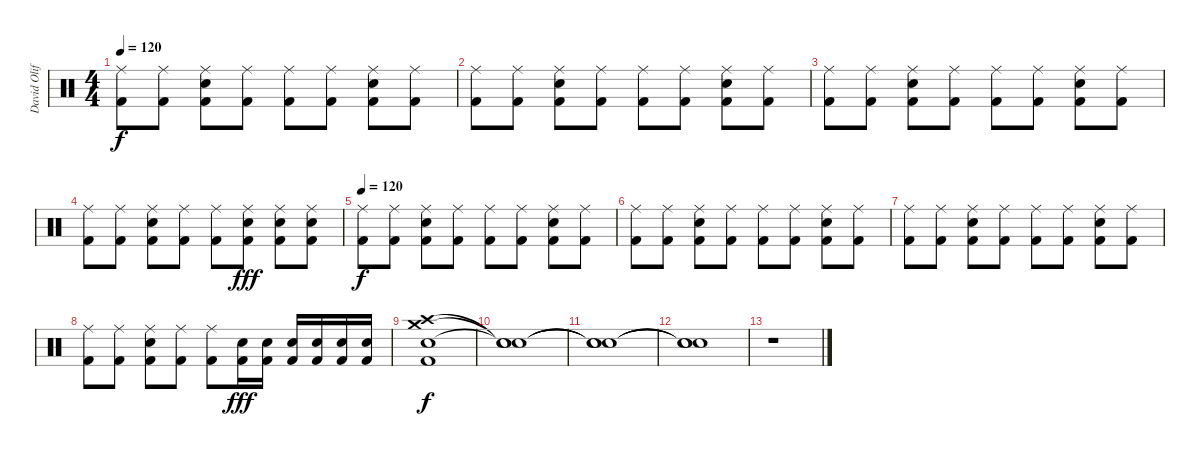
\track ("David Oliffe" "David Olif") {instrument percussion}
\staff {score}
\articulation defaults
\ts (4 4)
\tempo 120
\clef neutral
\ks c
("Ride (middle)" "Kick (hit) 2").8{dy f} ("Ride (middle)" "Kick (hit) 2").8 ("Ride (middle)" "Electric Snare (hit)" "Kick (hit) 2").8 ("Ride (middle)" "Kick (hit) 2").8 ("Ride (middle)" "Kick (hit) 2").8 ("Ride (middle)" "Kick (hit) 2").8 ("Ride (middle)" "Electric Snare (hit)" "Kick (hit) 2").8 ("Ride (middle)" "Kick (hit) 2").8 |
("Ride (middle)" "Kick (hit) 2").8 ("Ride (middle)" "Kick (hit) 2").8 ("Ride (middle)" "Electric Snare (hit)" "Kick (hit) 2").8 ("Ride (middle)" "Kick (hit) 2").8 ("Ride (middle)" "Kick (hit) 2").8 ("Ride (middle)" "Kick (hit) 2").8 ("Ride (middle)" "Electric Snare (hit)" "Kick (hit) 2").8 ("Ride (middle)" "Kick (hit) 2").8 |
("Ride (middle)" "Kick (hit) 2").8 ("Ride (middle)" "Kick (hit) 2").8 ("Ride (middle)" "Electric Snare (hit)" "Kick (hit) 2").8 ("Ride (middle)" "Kick (hit) 2").8 ("Ride (middle)" "Kick (hit) 2").8 ("Ride (middle)" "Kick (hit) 2").8 ("Ride (middle)" "Electric Snare (hit)" "Kick (hit) 2").8 ("Ride (middle)" "Kick (hit) 2").8 |
("Ride (middle)" "Kick (hit) 2").8 ("Ride (middle)" "Kick (hit) 2").8 ("Ride (middle)" "Electric Snare (hit)" "Kick (hit) 2").8 ("Ride (middle)" "Kick (hit) 2").8 ("Ride (middle)" "Kick (hit) 2").8 ("Ride (middle)" "Electric Snare (hit)" "Kick (hit) 2").8{dy fff} ("Ride (middle)" "Electric Snare (hit)" "Kick (hit) 2").8 ("Ride (middle)" "Electric Snare (hit)" "Kick (hit) 2").8 |
\tempo 120
("Ride (middle)" "Kick (hit) 2").8{dy f} ("Ride (middle)" "Kick (hit) 2").8 ("Ride (middle)" "Electric Snare (hit)" "Kick (hit) 2").8 ("Ride (middle)" "Kick (hit) 2").8 ("Ride (middle)" "Kick (hit) 2").8 ("Ride (middle)" "Kick (hit) 2").8 ("Ride (middle)" "Electric Snare (hit)" "Kick (hit) 2").8 ("Ride (middle)" "Kick (hit) 2").8 |
("Ride (middle)" "Kick (hit) 2").8 ("Ride (middle)" "Kick (hit) 2").8 ("Ride (middle)" "Electric Snare (hit)" "Kick (hit) 2").8 ("Ride (middle)" "Kick (hit) 2").8 ("Ride (middle)" "Kick (hit) 2").8 ("Ride (middle)" "Kick (hit) 2").8 ("Ride (middle)" "Electric Snare (hit)" "Kick (hit) 2").8 ("Ride (middle)" "Kick (hit) 2").8 |
("Ride (middle)" "Kick (hit) 2").8 ("Ride (middle)" "Kick (hit) 2").8 ("Ride (middle)" "Electric Snare (hit)" "Kick (hit) 2").8 ("Ride (middle)" "Kick (hit) 2").8 ("Ride (middle)" "Kick (hit) 2").8 ("Ride (middle)" "Kick (hit) 2").8 ("Ride (middle)" "Electric Snare (hit)" "Kick (hit) 2").8 ("Ride (middle)" "Kick (hit) 2").8 |
("Ride (middle)" "Kick (hit) 2").8 ("Ride (middle)" "Kick (hit) 2").8 ("Ride (middle)" "Electric Snare (hit)" "Kick (hit) 2").8 ("Ride (middle)" "Kick (hit) 2").8 ("Ride (middle)" "Kick (hit) 2").8 ("Electric Snare (hit)" "Kick (hit) 2").16{dy fff} ("Electric Snare (hit)" "Kick (hit) 2").16 ("Electric Snare (hit)" "Kick (hit) 2").16 ("Electric Snare (hit)" "Kick (hit) 2").16 ("Electric Snare (hit)" "Kick (hit) 2").16 ("Electric Snare (hit)" "Kick (hit) 2").16 |
("Crash medium (hit)" "Crash high (hit)" "Electric Snare (hit)" "Kick (hit) 2").1{dy f} |
("Snare (hit)"{t} "Snare (hit)"{t} "Snare (hit)"{t}).1 |
("Snare (hit)"{t} "Snare (hit)"{t} "Snare (hit)"{t}).1 |
("Snare (hit)"{t} "Snare (hit)"{t} "Snare (hit)"{t}).1 |
r.1
